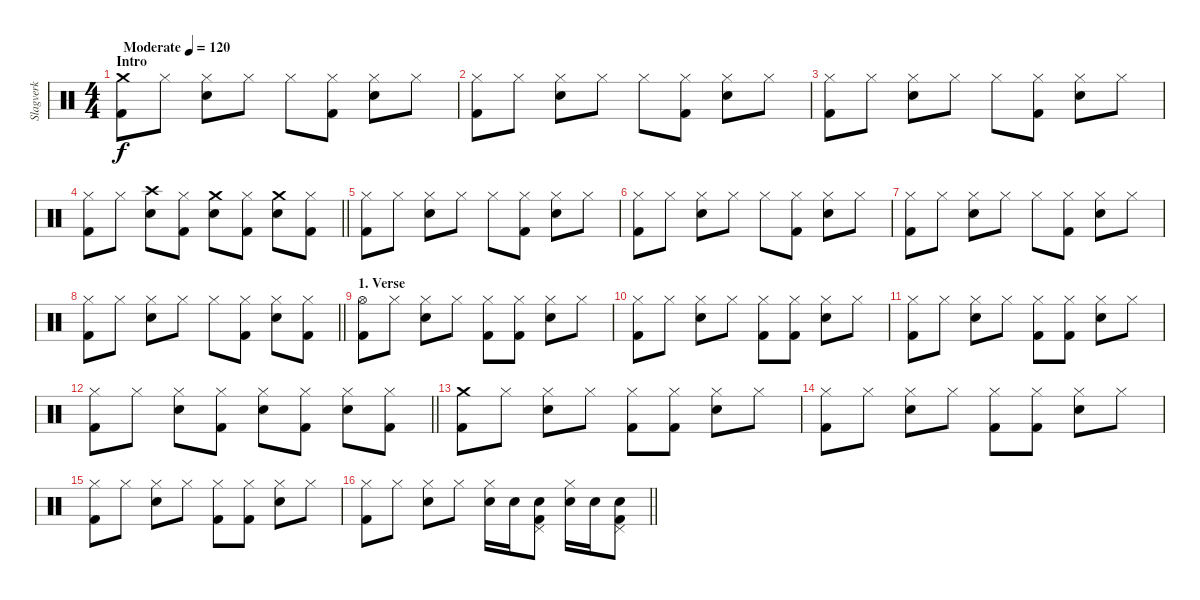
\track ("Slagverk" "Slagverk") {instrument percussion}
\staff {score}
\articulation defaults
\ts (4 4)
\section ("" "Intro")
\tempo (120 "Moderate")
\clef neutral
\ks c
("Crash medium (hit)" "Kick (hit) 2").8{dy f} "Hi-Hat (closed)".8 ("Hi-Hat (closed)" "Snare (hit) 2").8 "Hi-Hat (closed)".8 "Hi-Hat (closed)".8 ("Hi-Hat (closed)" "Kick (hit) 2").8 ("Hi-Hat (closed)" "Snare (hit) 2").8 "Hi-Hat (closed)".8 |
("Hi-Hat (closed)" "Kick (hit) 2").8 "Hi-Hat (closed)".8 ("Hi-Hat (closed)" "Snare (hit) 2").8 "Hi-Hat (closed)".8 "Hi-Hat (closed)".8 ("Hi-Hat (closed)" "Kick (hit) 2").8 ("Hi-Hat (closed)" "Snare (hit) 2").8 "Hi-Hat (closed)".8 |
("Hi-Hat (closed)" "Kick (hit) 2").8 "Hi-Hat (closed)".8 ("Hi-Hat (closed)" "Snare (hit) 2").8 "Hi-Hat (closed)".8 "Hi-Hat (closed)".8 ("Hi-Hat (closed)" "Kick (hit) 2").8 ("Hi-Hat (closed)" "Snare (hit) 2").8 "Hi-Hat (closed)".8 |
\barLineRight lightlight
("Hi-Hat (closed)" "Kick (hit) 2").8 "Hi-Hat (closed)".8 ("Crash high (hit)" "Snare (hit) 2").8 ("Hi-Hat (closed)" "Kick (hit) 2").8 ("Crash medium (hit)" "Snare (hit) 2").8 ("Hi-Hat (closed)" "Kick (hit) 2").8 ("Crash medium (hit)" "Snare (hit) 2").8 ("Hi-Hat (closed)" "Kick (hit) 2").8 |
("Hi-Hat (closed)" "Kick (hit) 2").8 "Hi-Hat (closed)".8 ("Hi-Hat (closed)" "Snare (hit) 2").8 "Hi-Hat (closed)".8 "Hi-Hat (closed)".8 ("Hi-Hat (closed)" "Kick (hit) 2").8 ("Hi-Hat (closed)" "Snare (hit) 2").8 "Hi-Hat (closed)".8 |
("Hi-Hat (closed)" "Kick (hit) 2").8 "Hi-Hat (closed)".8 ("Hi-Hat (closed)" "Snare (hit) 2").8 "Hi-Hat (closed)".8 "Hi-Hat (closed)".8 ("Hi-Hat (closed)" "Kick (hit) 2").8 ("Hi-Hat (closed)" "Snare (hit) 2").8 "Hi-Hat (closed)".8 |
("Hi-Hat (closed)" "Kick (hit) 2").8 "Hi-Hat (closed)".8 ("Hi-Hat (closed)" "Snare (hit) 2").8 "Hi-Hat (closed)".8 "Hi-Hat (closed)".8 ("Hi-Hat (closed)" "Kick (hit) 2").8 ("Hi-Hat (closed)" "Snare (hit) 2").8 "Hi-Hat (closed)".8 |
\barLineRight lightlight
("Hi-Hat (closed)" "Kick (hit) 2").8 "Hi-Hat (closed)".8 ("Hi-Hat (closed)" "Snare (hit) 2").8 "Hi-Hat (closed)".8 "Hi-Hat (closed)".8 ("Hi-Hat (closed)" "Kick (hit) 2").8 ("Hi-Hat (closed)" "Snare (hit) 2").8 ("Hi-Hat (closed)" "Kick (hit) 2").8 |
\section ("" "1. Verse")
("Hi-Hat (open)" "Kick (hit) 2").8 "Hi-Hat (closed)".8 ("Hi-Hat (closed)" "Snare (hit) 2").8 "Hi-Hat (closed)".8 ("Hi-Hat (closed)" "Kick (hit) 2").8 ("Hi-Hat (closed)" "Kick (hit) 2").8 ("Hi-Hat (closed)" "Snare (hit) 2").8 "Hi-Hat (closed)".8 |
("Hi-Hat (closed)" "Kick (hit) 2").8 "Hi-Hat (closed)".8 ("Hi-Hat (closed)" "Snare (hit) 2").8 "Hi-Hat (closed)".8 ("Hi-Hat (closed)" "Kick (hit) 2").8 ("Hi-Hat (closed)" "Kick (hit) 2").8 ("Hi-Hat (closed)" "Snare (hit) 2").8 "Hi-Hat (closed)".8 |
("Hi-Hat (closed)" "Kick (hit) 2").8 "Hi-Hat (closed)".8 ("Hi-Hat (closed)" "Snare (hit) 2").8 "Hi-Hat (closed)".8 ("Hi-Hat (closed)" "Kick (hit) 2").8 ("Hi-Hat (closed)" "Kick (hit) 2").8 ("Hi-Hat (closed)" "Snare (hit) 2").8 "Hi-Hat (closed)".8 |
\barLineRight lightlight
("Hi-Hat (closed)" "Kick (hit) 2").8 "Hi-Hat (closed)".8 ("Hi-Hat (closed)" "Snare (hit) 2").8 ("Hi-Hat (closed)" "Kick (hit) 2").8 ("Hi-Hat (closed)" "Snare (hit) 2").8 ("Hi-Hat (closed)" "Kick (hit) 2").8 ("Hi-Hat (closed)" "Snare (hit) 2").8 ("Hi-Hat (closed)" "Kick (hit) 2").8 |
("Crash medium (hit)" "Kick (hit) 2").8 "Hi-Hat (closed)".8 ("Hi-Hat (closed)" "Snare (hit) 2").8 "Hi-Hat (closed)".8 ("Hi-Hat (closed)" "Kick (hit) 2").8 ("Hi-Hat (closed)" "Kick (hit) 2").8 ("Hi-Hat (closed)" "Snare (hit) 2").8 "Hi-Hat (closed)".8 |
("Hi-Hat (closed)" "Kick (hit) 2").8 "Hi-Hat (closed)".8 ("Hi-Hat (closed)" "Snare (hit) 2").8 "Hi-Hat (closed)".8 ("Hi-Hat (closed)" "Kick (hit) 2").8 ("Hi-Hat (closed)" "Kick (hit) 2").8 ("Hi-Hat (closed)" "Snare (hit) 2").8 "Hi-Hat (closed)".8 |
("Hi-Hat (closed)" "Kick (hit) 2").8 "Hi-Hat (closed)".8 ("Hi-Hat (closed)" "Snare (hit) 2").8 "Hi-Hat (closed)".8 ("Hi-Hat (closed)" "Kick (hit) 2").8 ("Hi-Hat (closed)" "Kick (hit) 2").8 ("Hi-Hat (closed)" "Snare (hit) 2").8 "Hi-Hat (closed)".8 |
\barLineRight lightlight
("Hi-Hat (closed)" "Kick (hit) 2").8 "Hi-Hat (closed)".8 ("Hi-Hat (closed)" "Snare (hit) 2").8 "Hi-Hat (closed)".8 ("Hi-Hat (closed)" "Snare (hit) 2").16 "Snare (hit) 2".16 ("Pedal Hi-Hat (hit)" "Snare (hit) 2" "Kick (hit) 2").8 ("Hi-Hat (closed)" "Snare (hit) 2").16 "Snare (hit) 2".16 ("Pedal Hi-Hat (hit)" "Snare (hit) 2" "Kick (hit) 2").8
